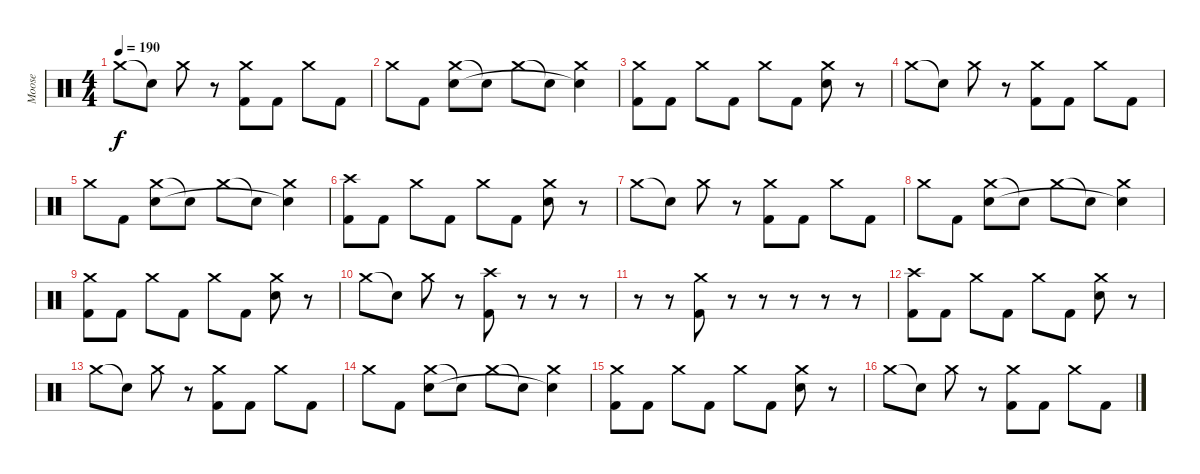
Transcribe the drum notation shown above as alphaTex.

\track ("Moose" "Moose") {instrument percussion}
\staff {score}
\articulation defaults
\ts (4 4)
\tempo 190
\clef neutral
\ks c "Crash medium (hit)".8{dy f} "Snare (hit)"{t}.8 "Crash medium (hit)".8
r.8 ("Crash medium (hit)" "Kick (hit) 2").8 "Kick (hit) 2".8 "Crash medium (hit)".8 "Kick (hit) 2".8 |
"Crash medium (hit)".8 "Kick (hit) 2".8 ("Crash medium (hit)" "Snare (hit) 2").8 "Snare (hit)"{t}.8 "Crash medium (hit)".8 "Snare (hit)"{t}.8 ("Crash medium (hit)" "Snare (hit)"{t}).4 |
("Crash medium (hit)" "Kick (hit) 2").8 "Kick (hit) 2".8 "Crash medium (hit)".8 "Kick (hit) 2".8 "Crash medium (hit)".8 "Kick (hit) 2".8 ("Crash medium (hit)" "Snare (hit) 2").8 r.8 |
"Crash medium (hit)".8 "Snare (hit)"{t}.8 "Crash medium (hit)".8 r.8 ("Crash medium (hit)" "Kick (hit) 2").8 "Kick (hit) 2".8 "Crash medium (hit)".8 "Kick (hit) 2".8 |
"Crash medium (hit)".8 "Kick (hit) 2".8 ("Crash medium (hit)" "Snare (hit) 2").8 "Snare (hit)"{t}.8 "Crash medium (hit)".8 "Snare (hit)"{t}.8 ("Crash medium (hit)" "Snare (hit)"{t}).4 |
("Crash high (hit)" "Kick (hit) 2").8 "Kick (hit) 2".8 "Crash medium (hit)".8 "Kick (hit) 2".8 "Crash medium (hit)".8 "Kick (hit) 2".8 ("Crash medium (hit)" "Snare (hit) 2").8 r.8 |
"Crash medium (hit)".8 "Snare (hit)"{t}.8 "Crash medium (hit)".8 r.8 ("Crash medium (hit)" "Kick (hit) 2").8 "Kick (hit) 2".8 "Crash medium (hit)".8 "Kick (hit) 2".8 |
"Crash medium (hit)".8 "Kick (hit) 2".8 ("Crash medium (hit)" "Snare (hit) 2").8 "Snare (hit)"{t}.8 "Crash medium (hit)".8 "Snare (hit)"{t}.8 ("Crash medium (hit)" "Snare (hit)"{t}).4 |
("Crash medium (hit)" "Kick (hit) 2").8 "Kick (hit) 2".8 "Crash medium (hit)".8 "Kick (hit) 2".8 "Crash medium (hit)".8 "Kick (hit) 2".8 ("Crash medium (hit)" "Snare (hit) 2").8 r.8 |
"Crash medium (hit)".8 "Snare (hit)"{t}.8 "Crash medium (hit)".8 r.8 ("Crash high (hit)" "Kick (hit) 2").8 r.8 r.8 r.8 |
r.8 r.8 ("Crash medium (hit)" "Kick (hit) 2").8 r.8 r.8 r.8 r.8 r.8 |
("Crash high (hit)" "Kick (hit) 2").8 "Kick (hit) 2".8 "Crash medium (hit)".8 "Kick (hit) 2".8 "Crash medium (hit)".8 "Kick (hit) 2".8 ("Crash medium (hit)" "Snare (hit) 2").8 r.8 |
"Crash medium (hit)".8 "Snare (hit)"{t}.8 "Crash medium (hit)".8 r.8 ("Crash medium (hit)" "Kick (hit) 2").8 "Kick (hit) 2".8 "Crash medium (hit)".8 "Kick (hit) 2".8 |
"Crash medium (hit)".8 "Kick (hit) 2".8 ("Crash medium (hit)" "Snare (hit) 2").8 "Snare (hit)"{t}.8 "Crash medium (hit)".8 "Snare (hit)"{t}.8 ("Crash medium (hit)" "Snare (hit)"{t}).4 |
("Crash medium (hit)" "Kick (hit) 2").8 "Kick (hit) 2".8 "Crash medium (hit)".8 "Kick (hit) 2".8 "Crash medium (hit)".8 "Kick (hit) 2".8 ("Crash medium (hit)" "Snare (hit) 2").8 r.8 |
"Crash medium (hit)".8 "Snare (hit)"{t}.8 "Crash medium (hit)".8 r.8 ("Crash medium (hit)" "Kick (hit) 2").8 "Kick (hit) 2".8 "Crash medium (hit)".8 "Kick (hit) 2".8
